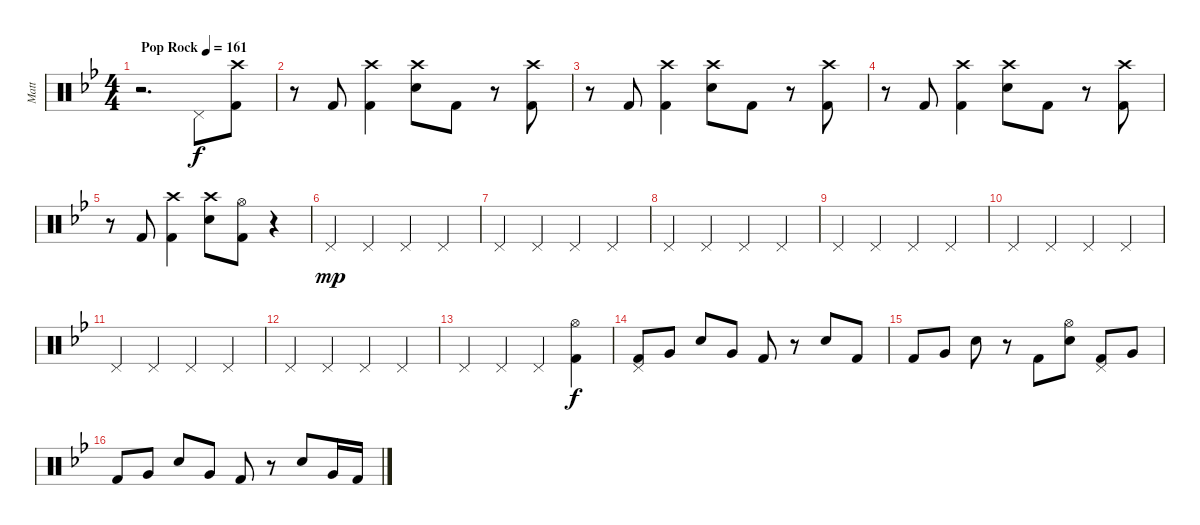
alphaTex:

\track ("Matt" "Matt") {instrument percussion}
\staff {score}
\articulation defaults
\ts (4 4)
\tempo (161 "Pop Rock")
\clef neutral
\ks bb
r.2{d dy f} "Pedal Hi-Hat (hit)".8 ("Crash high (hit)" "Kick (hit) 2").8 |
r.8 "Kick (hit) 2".8 ("Crash high (hit)" "Kick (hit) 2").4 ("Crash high (hit)" "Snare (hit) 2").8 "Kick (hit) 2".8 r.8 ("Crash high (hit)" "Kick (hit) 2").8 |
r.8 "Kick (hit) 2".8 ("Crash high (hit)" "Kick (hit) 2").4 ("Crash high (hit)" "Snare (hit) 2").8 "Kick (hit) 2".8 r.8 ("Crash high (hit)" "Kick (hit) 2").8 |
r.8 "Kick (hit) 2".8 ("Crash high (hit)" "Kick (hit) 2").4 ("Crash high (hit)" "Snare (hit) 2").8 "Kick (hit) 2".8 r.8 ("Crash high (hit)" "Kick (hit) 2").8 |
r.8 "Kick (hit) 2".8 ("Crash high (hit)" "Kick (hit) 2").4 ("Crash high (hit)" "Snare (hit) 2").8 ("Hi-Hat (open)" "Kick (hit) 2").8 r.4 |
"Pedal Hi-Hat (hit)".4{dy mp} "Pedal Hi-Hat (hit)".4 "Pedal Hi-Hat (hit)".4 "Pedal Hi-Hat (hit)".4 |
"Pedal Hi-Hat (hit)".4 "Pedal Hi-Hat (hit)".4 "Pedal Hi-Hat (hit)".4 "Pedal Hi-Hat (hit)".4 |
"Pedal Hi-Hat (hit)".4 "Pedal Hi-Hat (hit)".4 "Pedal Hi-Hat (hit)".4 "Pedal Hi-Hat (hit)".4 |
"Pedal Hi-Hat (hit)".4 "Pedal Hi-Hat (hit)".4 "Pedal Hi-Hat (hit)".4 "Pedal Hi-Hat (hit)".4 |
"Pedal Hi-Hat (hit)".4 "Pedal Hi-Hat (hit)".4 "Pedal Hi-Hat (hit)".4 "Pedal Hi-Hat (hit)".4 |
"Pedal Hi-Hat (hit)".4 "Pedal Hi-Hat (hit)".4 "Pedal Hi-Hat (hit)".4 "Pedal Hi-Hat (hit)".4 |
"Pedal Hi-Hat (hit)".4 "Pedal Hi-Hat (hit)".4 "Pedal Hi-Hat (hit)".4 "Pedal Hi-Hat (hit)".4 |
"Pedal Hi-Hat (hit)".4 "Pedal Hi-Hat (hit)".4 "Pedal Hi-Hat (hit)".4 ("Hi-Hat (open)" "Kick (hit) 2").4{dy f} |
("Pedal Hi-Hat (hit)" "Kick (hit) 2").8 "Very Low Tom (hit)".8 "Snare (hit) 2".8 "Very Low Tom (hit)".8 "Kick (hit) 2".8 r.8 "Snare (hit) 2".8 "Kick (hit) 2".8 |
"Kick (hit) 2".8 "Very Low Tom (hit)".8 "Snare (hit) 2".8 r.8 "Kick (hit) 2".8 ("Hi-Hat (open)" "Snare (hit) 2").8 ("Pedal Hi-Hat (hit)" "Kick (hit) 2").8 "Very Low Tom (hit)".8 |
"Kick (hit) 2".8 "Very Low Tom (hit)".8 "Snare (hit) 2".8 "Very Low Tom (hit)".8 "Kick (hit) 2".8 r.8 "Snare (hit) 2".8 "Very Low Tom (hit)".16 "Kick (hit) 2".16
